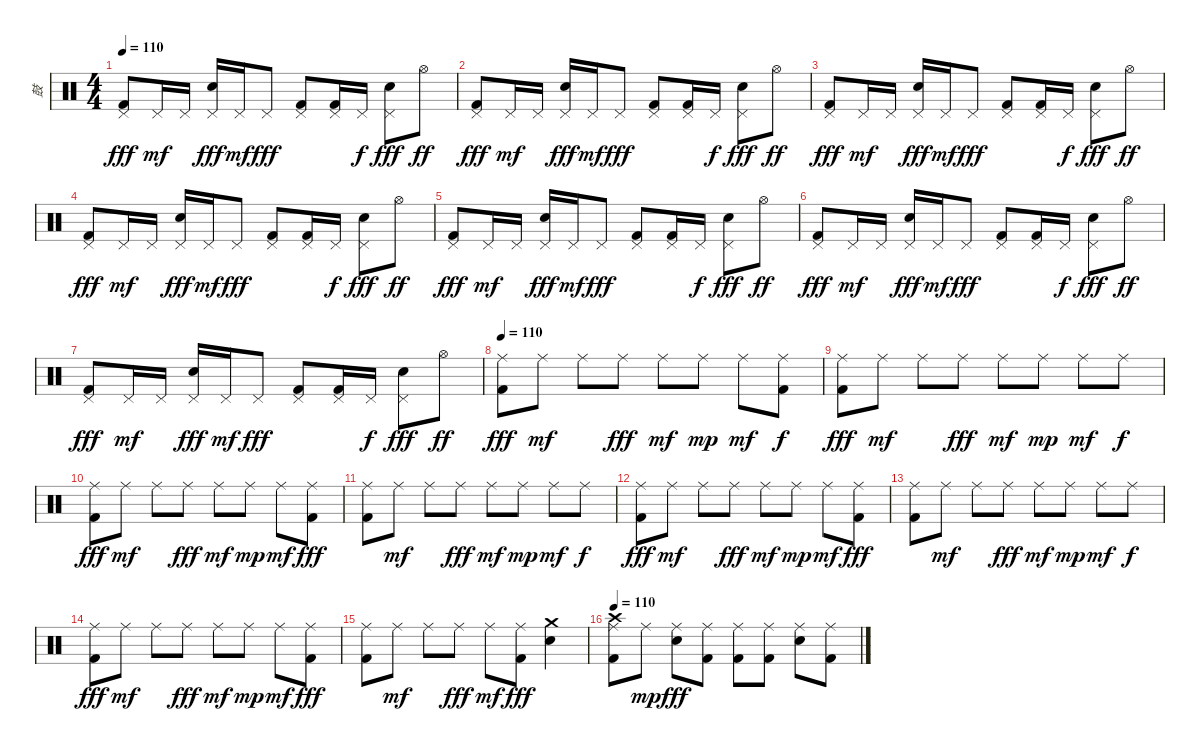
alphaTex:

\track ("鼓" "鼓") {instrument percussion}
\staff {score}
\articulation defaults
\ts (4 4)
\tempo 110
\clef neutral
\ks c
("Pedal Hi-Hat (hit)" "Kick (hit) 2").8{dy fff} "Pedal Hi-Hat (hit)".16{dy mf} "Pedal Hi-Hat (hit)".16 ("Pedal Hi-Hat (hit)" "Electric Snare (hit)").16{dy fff} "Pedal Hi-Hat (hit)".16{dy mf} "Pedal Hi-Hat (hit)".8{dy fff} ("Pedal Hi-Hat (hit)" "Kick (hit) 2").8 ("Pedal Hi-Hat (hit)" "Kick (hit) 2").16 "Pedal Hi-Hat (hit)".16{dy f} ("Pedal Hi-Hat (hit)" "Electric Snare (hit)").8{dy fff} "Hi-Hat (open)".8{dy ff} |
("Pedal Hi-Hat (hit)" "Kick (hit) 2").8{dy fff} "Pedal Hi-Hat (hit)".16{dy mf} "Pedal Hi-Hat (hit)".16 ("Pedal Hi-Hat (hit)" "Electric Snare (hit)").16{dy fff} "Pedal Hi-Hat (hit)".16{dy mf} "Pedal Hi-Hat (hit)".8{dy fff} ("Pedal Hi-Hat (hit)" "Kick (hit) 2").8 ("Pedal Hi-Hat (hit)" "Kick (hit) 2").16 "Pedal Hi-Hat (hit)".16{dy f} ("Pedal Hi-Hat (hit)" "Electric Snare (hit)").8{dy fff} "Hi-Hat (open)".8{dy ff} |
("Pedal Hi-Hat (hit)" "Kick (hit) 2").8{dy fff} "Pedal Hi-Hat (hit)".16{dy mf} "Pedal Hi-Hat (hit)".16 ("Pedal Hi-Hat (hit)" "Electric Snare (hit)").16{dy fff} "Pedal Hi-Hat (hit)".16{dy mf} "Pedal Hi-Hat (hit)".8{dy fff} ("Pedal Hi-Hat (hit)" "Kick (hit) 2").8 ("Pedal Hi-Hat (hit)" "Kick (hit) 2").16 "Pedal Hi-Hat (hit)".16{dy f} ("Pedal Hi-Hat (hit)" "Electric Snare (hit)").8{dy fff} "Hi-Hat (open)".8{dy ff} |
("Pedal Hi-Hat (hit)" "Kick (hit) 2").8{dy fff} "Pedal Hi-Hat (hit)".16{dy mf} "Pedal Hi-Hat (hit)".16 ("Pedal Hi-Hat (hit)" "Electric Snare (hit)").16{dy fff} "Pedal Hi-Hat (hit)".16{dy mf} "Pedal Hi-Hat (hit)".8{dy fff} ("Pedal Hi-Hat (hit)" "Kick (hit) 2").8 ("Pedal Hi-Hat (hit)" "Kick (hit) 2").16 "Pedal Hi-Hat (hit)".16{dy f} ("Pedal Hi-Hat (hit)" "Electric Snare (hit)").8{dy fff} "Hi-Hat (open)".8{dy ff} |
("Pedal Hi-Hat (hit)" "Kick (hit) 2").8{dy fff} "Pedal Hi-Hat (hit)".16{dy mf} "Pedal Hi-Hat (hit)".16 ("Pedal Hi-Hat (hit)" "Electric Snare (hit)").16{dy fff} "Pedal Hi-Hat (hit)".16{dy mf} "Pedal Hi-Hat (hit)".8{dy fff} ("Pedal Hi-Hat (hit)" "Kick (hit) 2").8 ("Pedal Hi-Hat (hit)" "Kick (hit) 2").16 "Pedal Hi-Hat (hit)".16{dy f} ("Pedal Hi-Hat (hit)" "Electric Snare (hit)").8{dy fff} "Hi-Hat (open)".8{dy ff} |
("Pedal Hi-Hat (hit)" "Kick (hit) 2").8{dy fff} "Pedal Hi-Hat (hit)".16{dy mf} "Pedal Hi-Hat (hit)".16 ("Pedal Hi-Hat (hit)" "Electric Snare (hit)").16{dy fff} "Pedal Hi-Hat (hit)".16{dy mf} "Pedal Hi-Hat (hit)".8{dy fff} ("Pedal Hi-Hat (hit)" "Kick (hit) 2").8 ("Pedal Hi-Hat (hit)" "Kick (hit) 2").16 "Pedal Hi-Hat (hit)".16{dy f} ("Pedal Hi-Hat (hit)" "Electric Snare (hit)").8{dy fff} "Hi-Hat (open)".8{dy ff} |
("Pedal Hi-Hat (hit)" "Kick (hit) 2").8{dy fff} "Pedal Hi-Hat (hit)".16{dy mf} "Pedal Hi-Hat (hit)".16 ("Pedal Hi-Hat (hit)" "Electric Snare (hit)").16{dy fff} "Pedal Hi-Hat (hit)".16{dy mf} "Pedal Hi-Hat (hit)".8{dy fff} ("Pedal Hi-Hat (hit)" "Kick (hit) 2").8 ("Pedal Hi-Hat (hit)" "Kick (hit) 2").16 "Pedal Hi-Hat (hit)".16{dy f} ("Pedal Hi-Hat (hit)" "Electric Snare (hit)").8{dy fff} "Hi-Hat (open)".8{dy ff} |
\tempo 110
("Ride (middle)" "Kick (hit) 2").8{dy fff} "Ride (middle)".8{dy mf} "Ride (middle)".8 "Ride (middle)".8{dy fff} "Ride (middle)".8{dy mf} "Ride (middle)".8{dy mp} "Ride (middle)".8{dy mf} ("Ride (middle)" "Kick (hit) 2").8{dy f} |
("Ride (middle)" "Kick (hit) 2").8{dy fff} "Ride (middle)".8{dy mf} "Ride (middle)".8 "Ride (middle)".8{dy fff} "Ride (middle)".8{dy mf} "Ride (middle)".8{dy mp} "Ride (middle)".8{dy mf} "Ride (middle)".8{dy f} |
("Ride (middle)" "Kick (hit) 2").8{dy fff} "Ride (middle)".8{dy mf} "Ride (middle)".8 "Ride (middle)".8{dy fff} "Ride (middle)".8{dy mf} "Ride (middle)".8{dy mp} "Ride (middle)".8{dy mf} ("Ride (middle)" "Kick (hit) 2").8{dy fff} |
("Ride (middle)" "Kick (hit) 2").8 "Ride (middle)".8{dy mf} "Ride (middle)".8 "Ride (middle)".8{dy fff} "Ride (middle)".8{dy mf} "Ride (middle)".8{dy mp} "Ride (middle)".8{dy mf} "Ride (middle)".8{dy f} |
("Ride (middle)" "Kick (hit) 2").8{dy fff} "Ride (middle)".8{dy mf} "Ride (middle)".8 "Ride (middle)".8{dy fff} "Ride (middle)".8{dy mf} "Ride (middle)".8{dy mp} "Ride (middle)".8{dy mf} ("Ride (middle)" "Kick (hit) 2").8{dy fff} |
("Ride (middle)" "Kick (hit) 2").8 "Ride (middle)".8{dy mf} "Ride (middle)".8 "Ride (middle)".8{dy fff} "Ride (middle)".8{dy mf} "Ride (middle)".8{dy mp} "Ride (middle)".8{dy mf} "Ride (middle)".8{dy f} |
("Ride (middle)" "Kick (hit) 2").8{dy fff} "Ride (middle)".8{dy mf} "Ride (middle)".8 "Ride (middle)".8{dy fff} "Ride (middle)".8{dy mf} "Ride (middle)".8{dy mp} "Ride (middle)".8{dy mf} ("Ride (middle)" "Kick (hit) 2").8{dy fff} |
("Ride (middle)" "Kick (hit) 2").8 "Ride (middle)".8{dy mf} "Ride (middle)".8 "Ride (middle)".8{dy fff} "Ride (middle)".8{dy mf} ("Ride (middle)" "Kick (hit) 2").8{dy fff} ("Crash medium (hit)" "Electric Snare (hit)").4 |
\tempo 110
("Ride (middle)" "Crash high (hit)" "Kick (hit) 2").8{volume 16} "Ride (middle)".8{dy mp} ("Ride (middle)" "Electric Snare (hit)").8{dy fff} ("Ride (middle)" "Kick (hit) 2").8 ("Ride (middle)" "Kick (hit) 2").8 ("Ride (middle)" "Kick (hit) 2").8 ("Ride (middle)" "Electric Snare (hit)").8 ("Ride (middle)" "Kick (hit) 2").8
